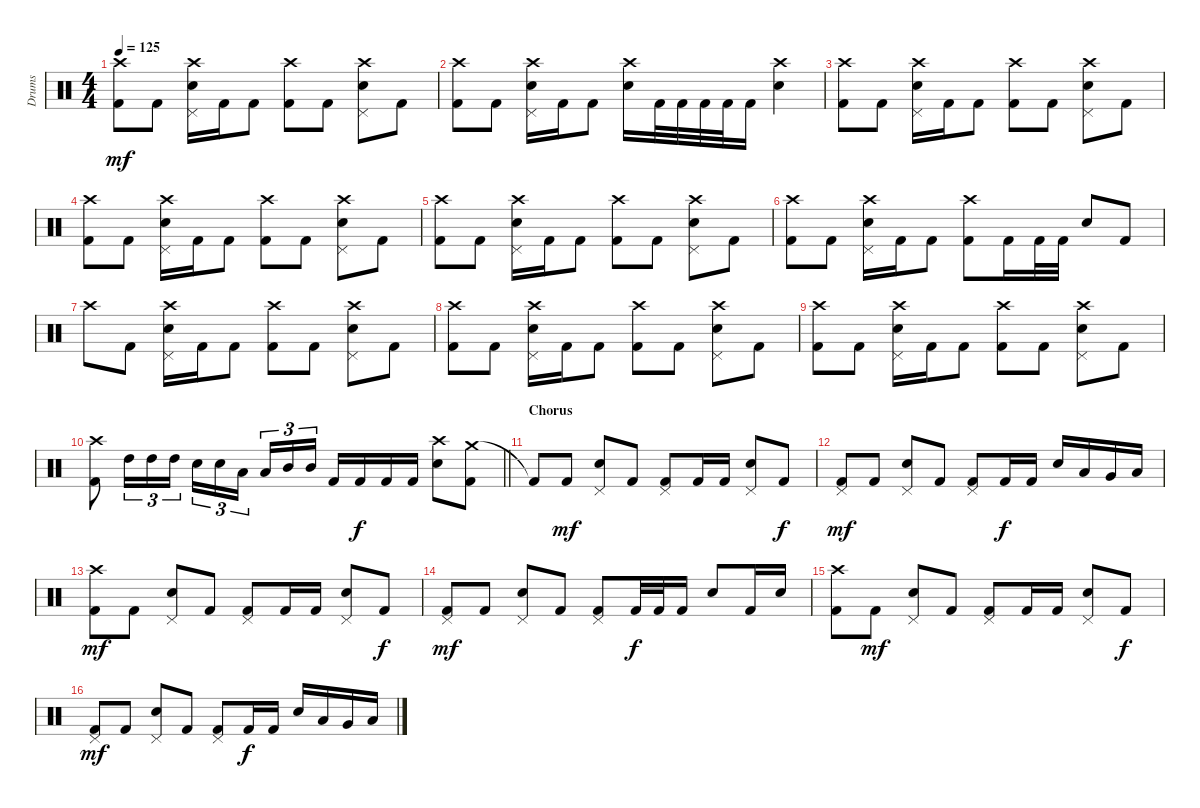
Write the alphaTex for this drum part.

\track ("Drums" "Drums") {instrument percussion}
\staff {score}
\articulation defaults
\ts (4 4)
\tempo 125
\clef neutral
\ks c
("Crash high (hit)" "Kick (hit) 2").8{dy mf} "Kick (hit) 2".8 ("Pedal Hi-Hat (hit)" "Crash high (hit)" "Snare (hit) 2").16 "Kick (hit) 2".16 "Kick (hit) 2".8 ("Crash high (hit)" "Kick (hit) 2").8 "Kick (hit) 2".8 ("Pedal Hi-Hat (hit)" "Crash high (hit)" "Snare (hit) 2").8 "Kick (hit) 2".8 |
("Crash high (hit)" "Kick (hit) 2").8 "Kick (hit) 2".8 ("Pedal Hi-Hat (hit)" "Crash high (hit)" "Snare (hit) 2").16 "Kick (hit) 2".16 "Kick (hit) 2".8 ("Crash high (hit)" "Snare (hit) 2").16 "Kick (hit) 2".32 "Kick (hit) 2".32 "Kick (hit) 2".32 "Kick (hit) 2".32 "Kick (hit) 2".16 ("Crash high (hit)" "Snare (hit) 2").4 |
("Crash high (hit)" "Kick (hit) 2").8 "Kick (hit) 2".8 ("Pedal Hi-Hat (hit)" "Crash high (hit)" "Snare (hit) 2").16 "Kick (hit) 2".16 "Kick (hit) 2".8 ("Crash high (hit)" "Kick (hit) 2").8 "Kick (hit) 2".8 ("Pedal Hi-Hat (hit)" "Crash high (hit)" "Snare (hit) 2").8 "Kick (hit) 2".8 |
("Crash high (hit)" "Kick (hit) 2").8 "Kick (hit) 2".8 ("Pedal Hi-Hat (hit)" "Crash high (hit)" "Snare (hit) 2").16 "Kick (hit) 2".16 "Kick (hit) 2".8 ("Crash high (hit)" "Kick (hit) 2").8 "Kick (hit) 2".8 ("Pedal Hi-Hat (hit)" "Crash high (hit)" "Snare (hit) 2").8 "Kick (hit) 2".8 |
("Crash high (hit)" "Kick (hit) 2").8 "Kick (hit) 2".8 ("Pedal Hi-Hat (hit)" "Crash high (hit)" "Snare (hit) 2").16 "Kick (hit) 2".16 "Kick (hit) 2".8 ("Crash high (hit)" "Kick (hit) 2").8 "Kick (hit) 2".8 ("Pedal Hi-Hat (hit)" "Crash high (hit)" "Snare (hit) 2").8 "Kick (hit) 2".8 |
("Crash high (hit)" "Kick (hit) 2").8 "Kick (hit) 2".8 ("Pedal Hi-Hat (hit)" "Crash high (hit)" "Snare (hit) 2").16 "Kick (hit) 2".16 "Kick (hit) 2".8 ("Crash high (hit)" "Kick (hit) 2").8 "Kick (hit) 2".16 "Kick (hit) 2".32 "Kick (hit) 2".32 "Snare (hit) 2".8 "Kick (hit) 2".8 |
"Crash high (hit)".8 "Kick (hit) 2".8 ("Pedal Hi-Hat (hit)" "Crash high (hit)" "Snare (hit) 2").16 "Kick (hit) 2".16 "Kick (hit) 2".8 ("Crash high (hit)" "Kick (hit) 2").8 "Kick (hit) 2".8 ("Pedal Hi-Hat (hit)" "Crash high (hit)" "Snare (hit) 2").8 "Kick (hit) 2".8 |
("Crash high (hit)" "Kick (hit) 2").8 "Kick (hit) 2".8 ("Pedal Hi-Hat (hit)" "Crash high (hit)" "Snare (hit) 2").16 "Kick (hit) 2".16 "Kick (hit) 2".8 ("Crash high (hit)" "Kick (hit) 2").8 "Kick (hit) 2".8 ("Pedal Hi-Hat (hit)" "Crash high (hit)" "Snare (hit) 2").8 "Kick (hit) 2".8 |
("Crash high (hit)" "Kick (hit) 2").8 "Kick (hit) 2".8 ("Pedal Hi-Hat (hit)" "Crash high (hit)" "Snare (hit) 2").16 "Kick (hit) 2".16 "Kick (hit) 2".8 ("Crash high (hit)" "Kick (hit) 2").8 "Kick (hit) 2".8 ("Pedal Hi-Hat (hit)" "Crash high (hit)" "Snare (hit) 2").8 "Kick (hit) 2".8 |
\barLineRight lightlight
("Crash high (hit)" "Kick (hit) 2").8 "High Tom (hit)".16{tu (3 2)} "High Tom (hit)".16{tu (3 2)} "High Tom (hit)".16{tu (3 2)} "Snare (hit) 2".16{tu (3 2)} "Snare (hit) 2".16{tu (3 2)} "Low Tom (hit)".16{tu (3 2) beam splitsecondary} "Low Tom (hit)".16{tu (3 2)} "Mid Tom (hit)".16{tu (3 2)} "Mid Tom (hit)".16{tu (3 2)} "Kick (hit) 2".16 "Kick (hit) 2".16{dy f} "Kick (hit) 2".16 "Kick (hit) 2".16 ("Crash high (hit)" "Snare (hit) 2").8 ("Crash medium (hit)" "Kick (hit) 2").8 |
\section ("" "Chorus")
"Kick (hit) 2"{t}.8 "Kick (hit) 2".8{dy mf} ("Pedal Hi-Hat (hit)" "Snare (hit) 2").8 "Kick (hit) 2".8 ("Pedal Hi-Hat (hit)" "Kick (hit) 2").8 "Kick (hit) 2".16 "Kick (hit) 2".16 ("Pedal Hi-Hat (hit)" "Snare (hit) 2").8 "Kick (hit) 2".8{dy f} |
("Pedal Hi-Hat (hit)" "Kick (hit) 2").8{dy mf} "Kick (hit) 2".8 ("Pedal Hi-Hat (hit)" "Snare (hit) 2").8 "Kick (hit) 2".8 ("Pedal Hi-Hat (hit)" "Kick (hit) 2").8 "Kick (hit) 2".16{dy f} "Kick (hit) 2".16 "Snare (hit) 2".16 "Low Tom (hit)".16 "Very Low Tom (hit)".16 "Low Tom (hit)".16 |
("Crash high (hit)" "Kick (hit) 2").8{dy mf} "Kick (hit) 2".8 ("Pedal Hi-Hat (hit)" "Snare (hit) 2").8 "Kick (hit) 2".8 ("Pedal Hi-Hat (hit)" "Kick (hit) 2").8 "Kick (hit) 2".16 "Kick (hit) 2".16 ("Pedal Hi-Hat (hit)" "Snare (hit) 2").8 "Kick (hit) 2".8{dy f} |
("Pedal Hi-Hat (hit)" "Kick (hit) 2").8{dy mf} "Kick (hit) 2".8 ("Pedal Hi-Hat (hit)" "Snare (hit) 2").8 "Kick (hit) 2".8 ("Pedal Hi-Hat (hit)" "Kick (hit) 2").8 "Kick (hit) 2".32{dy f} "Kick (hit) 2".32 "Kick (hit) 2".16 "Snare (hit) 2".8 "Kick (hit) 2".16 "Snare (hit) 2".16 |
("Crash high (hit)" "Kick (hit) 2").8 "Kick (hit) 2".8{dy mf} ("Pedal Hi-Hat (hit)" "Snare (hit) 2").8 "Kick (hit) 2".8 ("Pedal Hi-Hat (hit)" "Kick (hit) 2").8 "Kick (hit) 2".16 "Kick (hit) 2".16 ("Pedal Hi-Hat (hit)" "Snare (hit) 2").8 "Kick (hit) 2".8{dy f} |
("Pedal Hi-Hat (hit)" "Kick (hit) 2").8{dy mf} "Kick (hit) 2".8 ("Pedal Hi-Hat (hit)" "Snare (hit) 2").8 "Kick (hit) 2".8 ("Pedal Hi-Hat (hit)" "Kick (hit) 2").8 "Kick (hit) 2".16{dy f} "Kick (hit) 2".16 "Snare (hit) 2".16 "Low Tom (hit)".16 "Very Low Tom (hit)".16 "Low Tom (hit)".16
